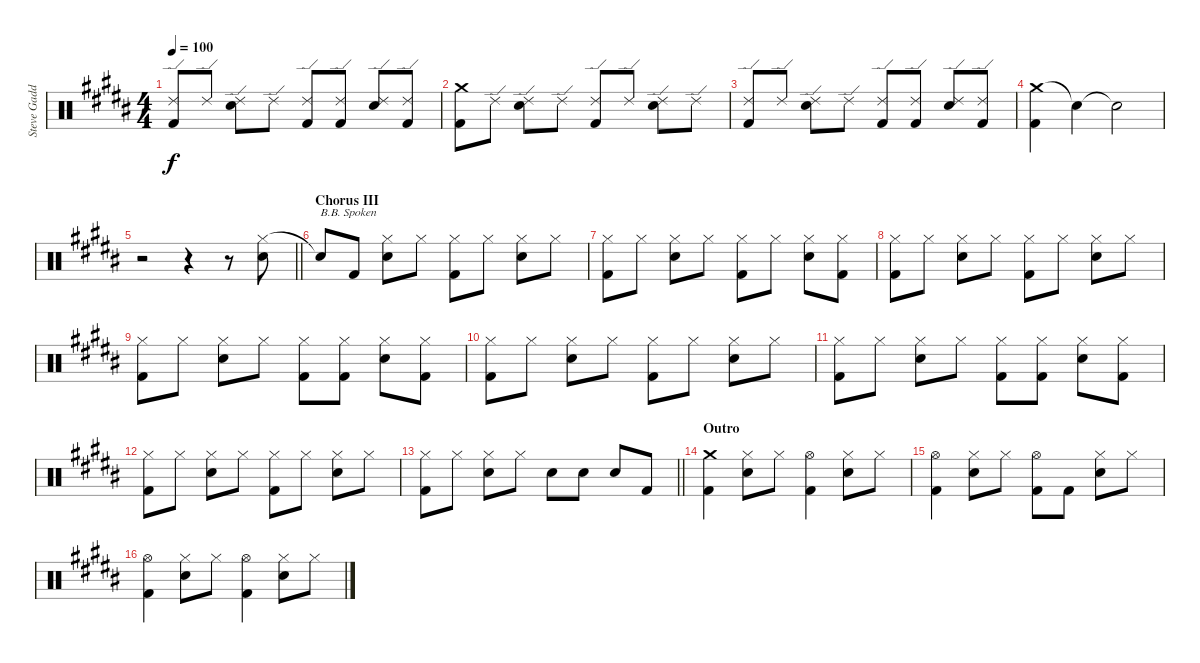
\track ("Steve Gadd Drums" "Steve Gadd") {instrument percussion}
\staff {score}
\articulation defaults
\ts (4 4)
\tempo 100
\clef neutral
\ks b
("Ride (edge) 2" "Kick (hit) 2").8{dy f} "Ride (edge) 2".8 ("Ride (edge) 2" "Snare (hit) 2").8 "Ride (edge) 2".8 ("Ride (edge) 2" "Kick (hit) 2").8 ("Ride (edge) 2" "Kick (hit) 2").8 ("Ride (edge) 2" "Snare (hit) 2").8 ("Ride (edge) 2" "Kick (hit) 2").8 |
("Crash medium (hit)" "Kick (hit) 2").8 "Ride (edge) 2".8 ("Ride (edge) 2" "Snare (hit) 2").8 "Ride (edge) 2".8 ("Ride (edge) 2" "Kick (hit) 2").8 "Ride (edge) 2".8 ("Ride (edge) 2" "Snare (hit) 2").8 "Ride (edge) 2".8 |
("Ride (edge) 2" "Kick (hit) 2").8 "Ride (edge) 2".8 ("Ride (edge) 2" "Snare (hit) 2").8 "Ride (edge) 2".8 ("Ride (edge) 2" "Kick (hit) 2").8 ("Ride (edge) 2" "Kick (hit) 2").8 ("Ride (edge) 2" "Snare (hit) 2").8 ("Ride (edge) 2" "Kick (hit) 2").8 |
("Crash medium (hit)" "Kick (hit) 2").4 "Snare (hit)"{t}.4 "Snare (hit)"{t}.2 |
\barLineRight lightlight
r.2 r.4 r.8 ("Hi-Hat (closed)" "Snare (hit) 2").8 |
\section ("" "Chorus III")
"Snare (hit)"{t}.8{txt "B.B. Spoken"} "Kick (hit) 2".8 ("Hi-Hat (closed)" "Snare (hit) 2").8 "Hi-Hat (closed)".8 ("Hi-Hat (closed)" "Kick (hit) 2").8 "Hi-Hat (closed)".8 ("Hi-Hat (closed)" "Snare (hit) 2").8 "Hi-Hat (closed)".8 |
("Hi-Hat (closed)" "Kick (hit) 2").8 "Hi-Hat (closed)".8 ("Hi-Hat (closed)" "Snare (hit) 2").8 "Hi-Hat (closed)".8 ("Hi-Hat (closed)" "Kick (hit) 2").8 "Hi-Hat (closed)".8 ("Hi-Hat (closed)" "Snare (hit) 2").8 ("Hi-Hat (closed)" "Kick (hit) 2").8 |
("Hi-Hat (closed)" "Kick (hit) 2").8 "Hi-Hat (closed)".8 ("Hi-Hat (closed)" "Snare (hit) 2").8 "Hi-Hat (closed)".8 ("Hi-Hat (closed)" "Kick (hit) 2").8 "Hi-Hat (closed)".8 ("Hi-Hat (closed)" "Snare (hit) 2").8 "Hi-Hat (closed)".8 |
("Hi-Hat (closed)" "Kick (hit) 2").8 "Hi-Hat (closed)".8 ("Hi-Hat (closed)" "Snare (hit) 2").8 "Hi-Hat (closed)".8 ("Hi-Hat (closed)" "Kick (hit) 2").8 ("Hi-Hat (closed)" "Kick (hit) 2").8 ("Hi-Hat (closed)" "Snare (hit) 2").8 ("Hi-Hat (closed)" "Kick (hit) 2").8 |
("Hi-Hat (closed)" "Kick (hit) 2").8 "Hi-Hat (closed)".8 ("Hi-Hat (closed)" "Snare (hit) 2").8 "Hi-Hat (closed)".8 ("Hi-Hat (closed)" "Kick (hit) 2").8 "Hi-Hat (closed)".8 ("Hi-Hat (closed)" "Snare (hit) 2").8 "Hi-Hat (closed)".8 |
("Hi-Hat (closed)" "Kick (hit) 2").8 "Hi-Hat (closed)".8 ("Hi-Hat (closed)" "Snare (hit) 2").8 "Hi-Hat (closed)".8 ("Hi-Hat (closed)" "Kick (hit) 2").8 ("Hi-Hat (closed)" "Kick (hit) 2").8 ("Hi-Hat (closed)" "Snare (hit) 2").8 ("Hi-Hat (closed)" "Kick (hit) 2").8 |
("Hi-Hat (closed)" "Kick (hit) 2").8 "Hi-Hat (closed)".8 ("Hi-Hat (closed)" "Snare (hit) 2").8 "Hi-Hat (closed)".8 ("Hi-Hat (closed)" "Kick (hit) 2").8 "Hi-Hat (closed)".8 ("Hi-Hat (closed)" "Snare (hit) 2").8 "Hi-Hat (closed)".8 |
\barLineRight lightlight
("Hi-Hat (closed)" "Kick (hit) 2").8 "Hi-Hat (closed)".8 ("Hi-Hat (closed)" "Snare (hit) 2").8 "Hi-Hat (closed)".8 "Snare (hit) 2".8 "Snare (hit) 2".8 "Snare (hit) 2".8 "Kick (hit) 2".8 |
\section ("" "Outro")
("Crash medium (hit)" "Kick (hit) 2").4 ("Hi-Hat (closed)" "Snare (hit) 2").8 "Hi-Hat (closed)".8 ("Hi-Hat (open)" "Kick (hit) 2").4 ("Hi-Hat (closed)" "Snare (hit) 2").8 "Hi-Hat (closed)".8 |
("Hi-Hat (open)" "Kick (hit) 2").4 ("Hi-Hat (closed)" "Snare (hit) 2").8 "Hi-Hat (closed)".8 ("Hi-Hat (open)" "Kick (hit) 2").8 "Kick (hit) 2".8 ("Hi-Hat (closed)" "Snare (hit) 2").8 "Hi-Hat (closed)".8 |
("Hi-Hat (open)" "Kick (hit) 2").4 ("Hi-Hat (closed)" "Snare (hit) 2").8 "Hi-Hat (closed)".8 ("Hi-Hat (open)" "Kick (hit) 2").4 ("Hi-Hat (closed)" "Snare (hit) 2").8 "Hi-Hat (closed)".8
